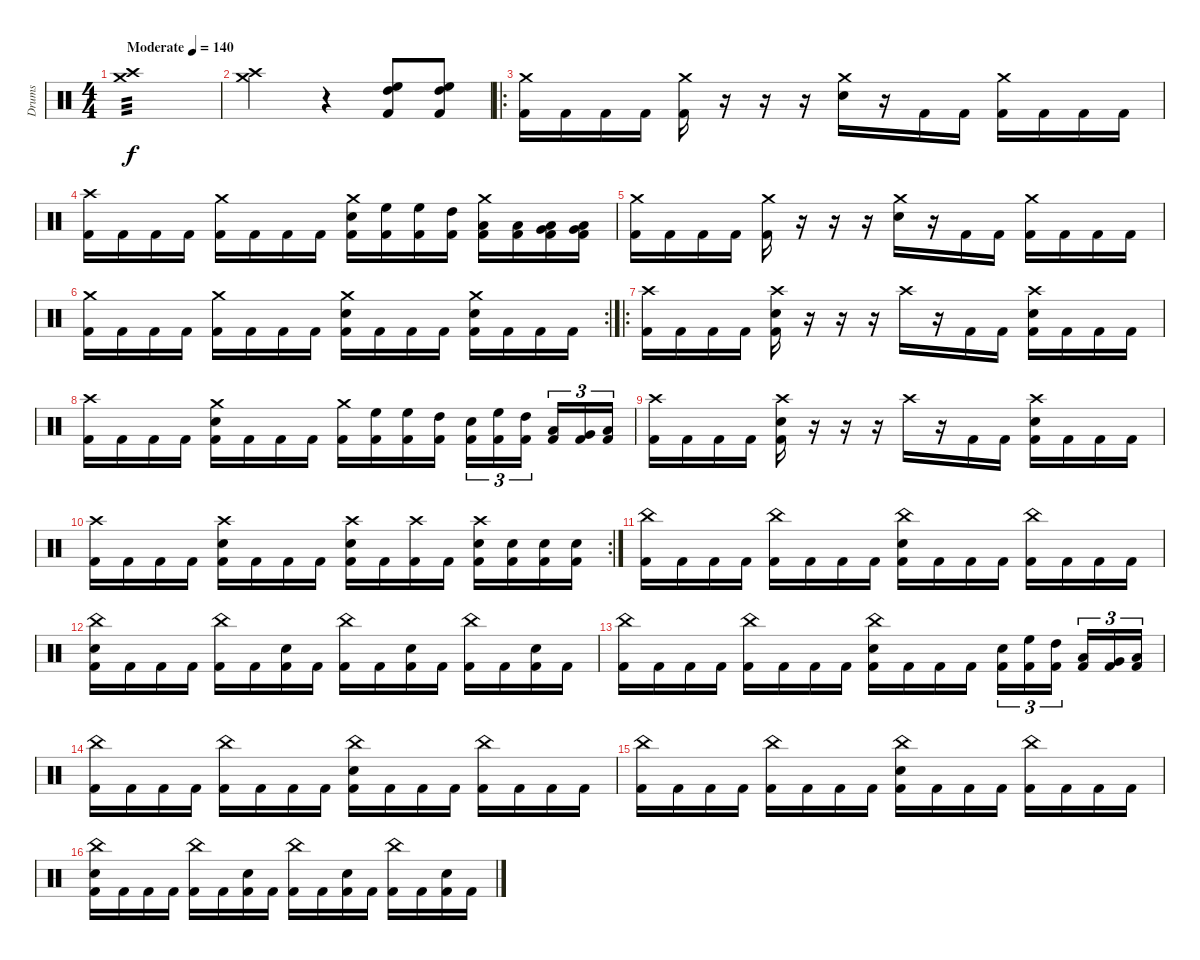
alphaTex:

\track ("Drums" "Drums") {mute instrument percussion}
\staff {score}
\articulation defaults
\ts (4 4)
\tempo (140 "Moderate")
\clef neutral
\ks c
("Crash high (hit)" "Crash medium (hit)").1{tp 3 dy f} |
("Crash high (hit)" "Crash medium (hit)").2 r.4 ("High Tom (hit)" "High Floor Tom (hit)" "Kick (hit) 2").8 ("High Tom (hit)" "High Floor Tom (hit)" "Kick (hit) 2").8 |
\ro
("Crash medium (hit)" "Kick (hit) 2").16 "Kick (hit) 2".16 "Kick (hit) 2".16 "Kick (hit) 2".16 ("Crash medium (hit)" "Kick (hit) 2").16 r.16 r.16 r.16 ("Crash medium (hit)" "Electric Snare (hit)").16 r.16 "Kick (hit) 2".16 "Kick (hit) 2".16 ("Crash medium (hit)" "Kick (hit) 2").16 "Kick (hit) 2".16 "Kick (hit) 2".16 "Kick (hit) 2".16 |
("Crash high (hit)" "Kick (hit) 2").16 "Kick (hit) 2".16 "Kick (hit) 2".16 "Kick (hit) 2".16 ("Crash medium (hit)" "Kick (hit) 2").16 "Kick (hit) 2".16 "Kick (hit) 2".16 "Kick (hit) 2".16 ("Crash medium (hit)" "Electric Snare (hit)" "Kick (hit) 2").16 ("High Floor Tom (hit)" "Kick (hit) 2").16 ("High Floor Tom (hit)" "Kick (hit) 2").16 ("High Tom (hit)" "Kick (hit) 2").16 ("Crash medium (hit)" "Low Tom (hit)" "Kick (hit) 2").16 ("Low Tom (hit)" "Kick (hit) 2").16 ("Low Floor Tom (hit)" "Very Low Tom (hit)" "Kick (hit) 2").16 ("Low Floor Tom (hit)" "Very Low Tom (hit)" "Kick (hit) 2").16 |
("Crash medium (hit)" "Kick (hit) 2").16 "Kick (hit) 2".16 "Kick (hit) 2".16 "Kick (hit) 2".16 ("Crash medium (hit)" "Kick (hit) 2").16 r.16 r.16 r.16 ("Crash medium (hit)" "Electric Snare (hit)").16 r.16 "Kick (hit) 2".16 "Kick (hit) 2".16 ("Crash medium (hit)" "Kick (hit) 2").16 "Kick (hit) 2".16 "Kick (hit) 2".16 "Kick (hit) 2".16 |
\rc 2
("Crash medium (hit)" "Kick (hit) 2").16 "Kick (hit) 2".16 "Kick (hit) 2".16 "Kick (hit) 2".16 ("Crash medium (hit)" "Kick (hit) 2").16 "Kick (hit) 2".16 "Kick (hit) 2".16 "Kick (hit) 2".16 ("Crash medium (hit)" "Electric Snare (hit)" "Kick (hit) 2").16 "Kick (hit) 2".16 "Kick (hit) 2".16 "Kick (hit) 2".16 ("Crash medium (hit)" "Electric Snare (hit)" "Kick (hit) 2").16 "Kick (hit) 2".16 "Kick (hit) 2".16 "Kick (hit) 2".16 |
\ro
("Crash high (hit)" "Kick (hit) 2").16 "Kick (hit) 2".16 "Kick (hit) 2".16 "Kick (hit) 2".16 ("Crash high (hit)" "Electric Snare (hit)" "Kick (hit) 2").16 r.16 r.16 r.16 "Crash high (hit)".16 r.16 "Kick (hit) 2".16 "Kick (hit) 2".16 ("Crash high (hit)" "Electric Snare (hit)" "Kick (hit) 2").16 "Kick (hit) 2".16 "Kick (hit) 2".16 "Kick (hit) 2".16 |
("Crash high (hit)" "Kick (hit) 2").16 "Kick (hit) 2".16 "Kick (hit) 2".16 "Kick (hit) 2".16 ("Crash medium (hit)" "Electric Snare (hit)" "Kick (hit) 2").16 "Kick (hit) 2".16 "Kick (hit) 2".16 "Kick (hit) 2".16 ("Crash medium (hit)" "Kick (hit) 2").16 ("High Floor Tom (hit)" "Kick (hit) 2").16 ("High Floor Tom (hit)" "Kick (hit) 2").16 ("High Tom (hit)" "Kick (hit) 2").16 ("Electric Snare (hit)" "Kick (hit) 2").16{tu (3 2)} ("High Floor Tom (hit)" "Kick (hit) 2").16{tu (3 2)} ("High Tom (hit)" "Kick (hit) 2").16{tu (3 2) beam splitsecondary} ("Low Tom (hit)" "Kick (hit) 2").16{tu (3 2)} ("Very Low Tom (hit)" "Kick (hit) 2").16{tu (3 2)} ("Low Floor Tom (hit)" "Kick (hit) 2").16{tu (3 2)} |
("Crash high (hit)" "Kick (hit) 2").16 "Kick (hit) 2".16 "Kick (hit) 2".16 "Kick (hit) 2".16 ("Crash high (hit)" "Electric Snare (hit)" "Kick (hit) 2").16 r.16 r.16 r.16 "Crash high (hit)".16 r.16 "Kick (hit) 2".16 "Kick (hit) 2".16 ("Crash high (hit)" "Electric Snare (hit)" "Kick (hit) 2").16 "Kick (hit) 2".16 "Kick (hit) 2".16 "Kick (hit) 2".16 |
\rc 2
("Crash high (hit)" "Kick (hit) 2").16 "Kick (hit) 2".16 "Kick (hit) 2".16 "Kick (hit) 2".16 ("Crash high (hit)" "Electric Snare (hit)" "Kick (hit) 2").16 "Kick (hit) 2".16 "Kick (hit) 2".16 "Kick (hit) 2".16 ("Crash high (hit)" "Electric Snare (hit)" "Kick (hit) 2").16 "Kick (hit) 2".16 ("Crash high (hit)" "Kick (hit) 2").16 "Kick (hit) 2".16 ("Crash high (hit)" "Electric Snare (hit)" "Kick (hit) 2").16 ("Electric Snare (hit)" "Kick (hit) 2").16 ("Electric Snare (hit)" "Kick (hit) 2").16 ("Electric Snare (hit)" "Kick (hit) 2").16 |
("China (hit)" "Kick (hit) 2").16 "Kick (hit) 2".16 "Kick (hit) 2".16 "Kick (hit) 2".16 ("China (hit)" "Kick (hit) 2").16 "Kick (hit) 2".16 "Kick (hit) 2".16 "Kick (hit) 2".16 ("China (hit)" "Electric Snare (hit)" "Kick (hit) 2").16 "Kick (hit) 2".16 "Kick (hit) 2".16 "Kick (hit) 2".16 ("China (hit)" "Kick (hit) 2").16 "Kick (hit) 2".16 "Kick (hit) 2".16 "Kick (hit) 2".16 |
("China (hit)" "Electric Snare (hit)" "Kick (hit) 2").16 "Kick (hit) 2".16 "Kick (hit) 2".16 "Kick (hit) 2".16 ("China (hit)" "Kick (hit) 2").16 "Kick (hit) 2".16 ("Electric Snare (hit)" "Kick (hit) 2").16 "Kick (hit) 2".16 ("China (hit)" "Kick (hit) 2").16 "Kick (hit) 2".16 ("Electric Snare (hit)" "Kick (hit) 2").16 "Kick (hit) 2".16 ("China (hit)" "Kick (hit) 2").16 "Kick (hit) 2".16 ("Electric Snare (hit)" "Kick (hit) 2").16 "Kick (hit) 2".16 |
("China (hit)" "Kick (hit) 2").16 "Kick (hit) 2".16 "Kick (hit) 2".16 "Kick (hit) 2".16 ("China (hit)" "Kick (hit) 2").16 "Kick (hit) 2".16 "Kick (hit) 2".16 "Kick (hit) 2".16 ("China (hit)" "Electric Snare (hit)" "Kick (hit) 2").16 "Kick (hit) 2".16 "Kick (hit) 2".16 "Kick (hit) 2".16 ("Electric Snare (hit)" "Kick (hit) 2").16{tu (3 2)} ("High Floor Tom (hit)" "Kick (hit) 2").16{tu (3 2)} ("High Tom (hit)" "Kick (hit) 2").16{tu (3 2) beam splitsecondary} ("Low Tom (hit)" "Kick (hit) 2").16{tu (3 2)} ("Very Low Tom (hit)" "Kick (hit) 2").16{tu (3 2)} ("Low Floor Tom (hit)" "Kick (hit) 2").16{tu (3 2)} |
("China (hit)" "Kick (hit) 2").16 "Kick (hit) 2".16 "Kick (hit) 2".16 "Kick (hit) 2".16 ("China (hit)" "Kick (hit) 2").16 "Kick (hit) 2".16 "Kick (hit) 2".16 "Kick (hit) 2".16 ("China (hit)" "Electric Snare (hit)" "Kick (hit) 2").16 "Kick (hit) 2".16 "Kick (hit) 2".16 "Kick (hit) 2".16 ("China (hit)" "Kick (hit) 2").16 "Kick (hit) 2".16 "Kick (hit) 2".16 "Kick (hit) 2".16 |
("China (hit)" "Kick (hit) 2").16 "Kick (hit) 2".16 "Kick (hit) 2".16 "Kick (hit) 2".16 ("China (hit)" "Kick (hit) 2").16 "Kick (hit) 2".16 "Kick (hit) 2".16 "Kick (hit) 2".16 ("China (hit)" "Electric Snare (hit)" "Kick (hit) 2").16 "Kick (hit) 2".16 "Kick (hit) 2".16 "Kick (hit) 2".16 ("China (hit)" "Kick (hit) 2").16 "Kick (hit) 2".16 "Kick (hit) 2".16 "Kick (hit) 2".16 |
("China (hit)" "Electric Snare (hit)" "Kick (hit) 2").16 "Kick (hit) 2".16 "Kick (hit) 2".16 "Kick (hit) 2".16 ("China (hit)" "Kick (hit) 2").16 "Kick (hit) 2".16 ("Electric Snare (hit)" "Kick (hit) 2").16 "Kick (hit) 2".16 ("China (hit)" "Kick (hit) 2").16 "Kick (hit) 2".16 ("Electric Snare (hit)" "Kick (hit) 2").16 "Kick (hit) 2".16 ("China (hit)" "Kick (hit) 2").16 "Kick (hit) 2".16 ("Electric Snare (hit)" "Kick (hit) 2").16 "Kick (hit) 2".16
